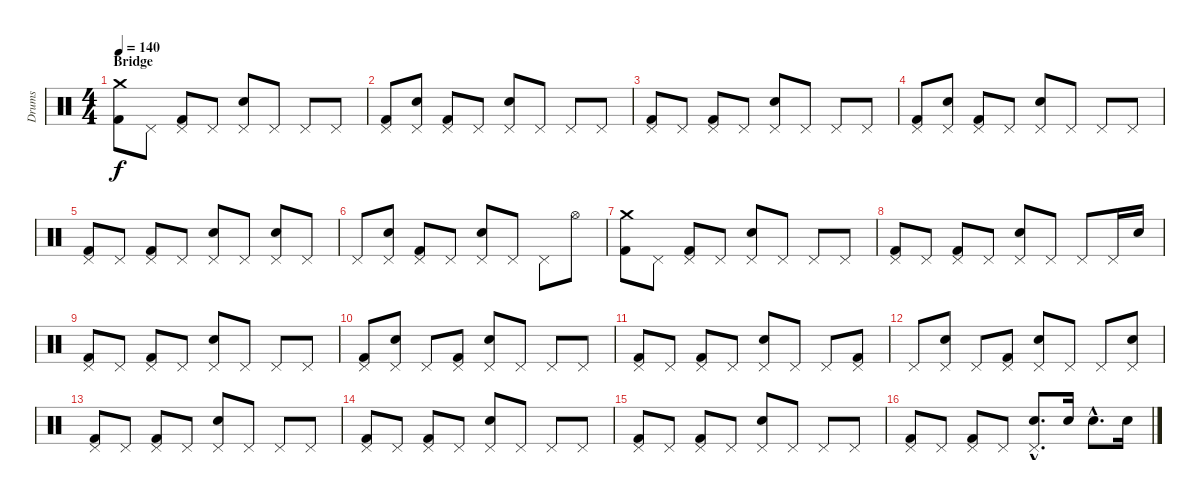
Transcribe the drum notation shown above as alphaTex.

\track ("Drums" "Drums") {instrument percussion}
\staff {score}
\articulation defaults
\ts (4 4)
\section ("" "Bridge")
\tempo 140
\clef neutral
\ks c
("Crash medium (hit)" "Kick (hit) 2").8{dy f} "Pedal Hi-Hat (hit)".8 ("Pedal Hi-Hat (hit)" "Kick (hit) 2").8 "Pedal Hi-Hat (hit)".8 ("Pedal Hi-Hat (hit)" "Electric Snare (hit)").8 "Pedal Hi-Hat (hit)".8 "Pedal Hi-Hat (hit)".8 "Pedal Hi-Hat (hit)".8 |
("Pedal Hi-Hat (hit)" "Kick (hit) 2").8 ("Pedal Hi-Hat (hit)" "Electric Snare (hit)").8 ("Pedal Hi-Hat (hit)" "Kick (hit) 2").8 "Pedal Hi-Hat (hit)".8 ("Pedal Hi-Hat (hit)" "Electric Snare (hit)").8 "Pedal Hi-Hat (hit)".8 "Pedal Hi-Hat (hit)".8 "Pedal Hi-Hat (hit)".8 |
("Pedal Hi-Hat (hit)" "Kick (hit) 2").8 "Pedal Hi-Hat (hit)".8 ("Pedal Hi-Hat (hit)" "Kick (hit) 2").8 "Pedal Hi-Hat (hit)".8 ("Pedal Hi-Hat (hit)" "Electric Snare (hit)").8 "Pedal Hi-Hat (hit)".8 "Pedal Hi-Hat (hit)".8 "Pedal Hi-Hat (hit)".8 |
("Pedal Hi-Hat (hit)" "Kick (hit) 2").8 ("Pedal Hi-Hat (hit)" "Electric Snare (hit)").8 ("Pedal Hi-Hat (hit)" "Kick (hit) 2").8 "Pedal Hi-Hat (hit)".8 ("Pedal Hi-Hat (hit)" "Electric Snare (hit)").8 "Pedal Hi-Hat (hit)".8 "Pedal Hi-Hat (hit)".8 "Pedal Hi-Hat (hit)".8 |
("Pedal Hi-Hat (hit)" "Kick (hit) 2").8 "Pedal Hi-Hat (hit)".8 ("Pedal Hi-Hat (hit)" "Kick (hit) 2").8 "Pedal Hi-Hat (hit)".8 ("Pedal Hi-Hat (hit)" "Electric Snare (hit)").8 "Pedal Hi-Hat (hit)".8 ("Pedal Hi-Hat (hit)" "Electric Snare (hit)").8 "Pedal Hi-Hat (hit)".8 |
"Pedal Hi-Hat (hit)".8 ("Pedal Hi-Hat (hit)" "Electric Snare (hit)").8 ("Pedal Hi-Hat (hit)" "Kick (hit) 2").8 "Pedal Hi-Hat (hit)".8 ("Pedal Hi-Hat (hit)" "Electric Snare (hit)").8 "Pedal Hi-Hat (hit)".8 "Pedal Hi-Hat (hit)".8 "Hi-Hat (open)".8 |
("Crash medium (hit)" "Kick (hit) 2").8 "Pedal Hi-Hat (hit)".8 ("Pedal Hi-Hat (hit)" "Kick (hit) 2").8 "Pedal Hi-Hat (hit)".8 ("Pedal Hi-Hat (hit)" "Electric Snare (hit)").8 "Pedal Hi-Hat (hit)".8 "Pedal Hi-Hat (hit)".8 "Pedal Hi-Hat (hit)".8 |
("Pedal Hi-Hat (hit)" "Kick (hit) 2").8 "Pedal Hi-Hat (hit)".8 ("Pedal Hi-Hat (hit)" "Kick (hit) 2").8 "Pedal Hi-Hat (hit)".8 ("Pedal Hi-Hat (hit)" "Electric Snare (hit)").8 "Pedal Hi-Hat (hit)".8 "Pedal Hi-Hat (hit)".8 "Pedal Hi-Hat (hit)".16 "Electric Snare (hit)".16 |
("Pedal Hi-Hat (hit)" "Kick (hit) 2").8 "Pedal Hi-Hat (hit)".8 ("Pedal Hi-Hat (hit)" "Kick (hit) 2").8 "Pedal Hi-Hat (hit)".8 ("Pedal Hi-Hat (hit)" "Electric Snare (hit)").8 "Pedal Hi-Hat (hit)".8 "Pedal Hi-Hat (hit)".8 "Pedal Hi-Hat (hit)".8 |
("Pedal Hi-Hat (hit)" "Kick (hit) 2").8 ("Pedal Hi-Hat (hit)" "Electric Snare (hit)").8 "Pedal Hi-Hat (hit)".8 ("Pedal Hi-Hat (hit)" "Kick (hit) 2").8 ("Pedal Hi-Hat (hit)" "Electric Snare (hit)").8 "Pedal Hi-Hat (hit)".8 "Pedal Hi-Hat (hit)".8 "Pedal Hi-Hat (hit)".8 |
("Pedal Hi-Hat (hit)" "Kick (hit) 2").8 "Pedal Hi-Hat (hit)".8 ("Pedal Hi-Hat (hit)" "Kick (hit) 2").8 "Pedal Hi-Hat (hit)".8 ("Pedal Hi-Hat (hit)" "Electric Snare (hit)").8 "Pedal Hi-Hat (hit)".8 "Pedal Hi-Hat (hit)".8 ("Pedal Hi-Hat (hit)" "Kick (hit) 2").8 |
"Pedal Hi-Hat (hit)".8 ("Pedal Hi-Hat (hit)" "Electric Snare (hit)").8 "Pedal Hi-Hat (hit)".8 ("Pedal Hi-Hat (hit)" "Kick (hit) 2").8 ("Pedal Hi-Hat (hit)" "Electric Snare (hit)").8 "Pedal Hi-Hat (hit)".8 "Pedal Hi-Hat (hit)".8 ("Pedal Hi-Hat (hit)" "Electric Snare (hit)").8 |
("Pedal Hi-Hat (hit)" "Kick (hit) 2").8 "Pedal Hi-Hat (hit)".8 ("Pedal Hi-Hat (hit)" "Kick (hit) 2").8 "Pedal Hi-Hat (hit)".8 ("Pedal Hi-Hat (hit)" "Electric Snare (hit)").8 "Pedal Hi-Hat (hit)".8 "Pedal Hi-Hat (hit)".8 "Pedal Hi-Hat (hit)".8 |
("Pedal Hi-Hat (hit)" "Kick (hit) 2").8 "Pedal Hi-Hat (hit)".8 ("Pedal Hi-Hat (hit)" "Kick (hit) 2").8 "Pedal Hi-Hat (hit)".8 ("Pedal Hi-Hat (hit)" "Electric Snare (hit)").8 "Pedal Hi-Hat (hit)".8 "Pedal Hi-Hat (hit)".8 "Pedal Hi-Hat (hit)".8 |
("Pedal Hi-Hat (hit)" "Kick (hit) 2").8 "Pedal Hi-Hat (hit)".8 ("Pedal Hi-Hat (hit)" "Kick (hit) 2").8 "Pedal Hi-Hat (hit)".8 ("Pedal Hi-Hat (hit)" "Electric Snare (hit)").8 "Pedal Hi-Hat (hit)".8 "Pedal Hi-Hat (hit)".8 "Pedal Hi-Hat (hit)".8 |
("Pedal Hi-Hat (hit)" "Kick (hit) 2").8 "Pedal Hi-Hat (hit)".8 ("Pedal Hi-Hat (hit)" "Kick (hit) 2").8 "Pedal Hi-Hat (hit)".8 ("Pedal Hi-Hat (hit)"{hac} "Electric Snare (hit)"{hac}).8{d} "Electric Snare (hit)".16 "Electric Snare (hit)"{hac}.8{d} "Electric Snare (hit)".16
